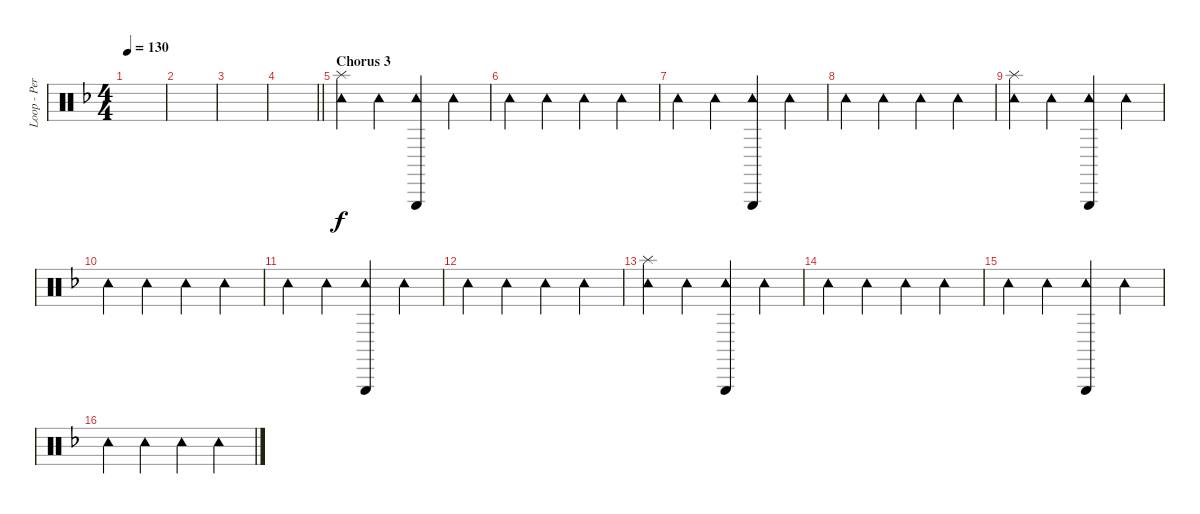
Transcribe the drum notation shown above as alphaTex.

\track ("Loop - Percussion FX" "Loop - Per") {instrument percussion}
\staff {score}
\articulation defaults
\ts (4 4)
\tempo 130
\clef neutral
\ks f
|
|
|
\barLineRight lightlight
|
\section ("" "Chorus 3")
("Tambourine (hit)" "Splash (hit)").4 "Tambourine (hit)".4 ("Tambourine (hit)" "Triangle (hit)").4 "Tambourine (hit)".4 |
"Tambourine (hit)".4 "Tambourine (hit)".4 "Tambourine (hit)".4 "Tambourine (hit)".4 |
"Tambourine (hit)".4 "Tambourine (hit)".4 ("Tambourine (hit)" "Triangle (hit)").4 "Tambourine (hit)".4 |
"Tambourine (hit)".4 "Tambourine (hit)".4 "Tambourine (hit)".4 "Tambourine (hit)".4 |
("Tambourine (hit)" "Splash (hit)").4 "Tambourine (hit)".4 ("Tambourine (hit)" "Triangle (hit)").4 "Tambourine (hit)".4 |
"Tambourine (hit)".4 "Tambourine (hit)".4 "Tambourine (hit)".4 "Tambourine (hit)".4 |
"Tambourine (hit)".4 "Tambourine (hit)".4 ("Tambourine (hit)" "Triangle (hit)").4 "Tambourine (hit)".4 |
"Tambourine (hit)".4 "Tambourine (hit)".4 "Tambourine (hit)".4 "Tambourine (hit)".4 |
("Tambourine (hit)" "Splash (hit)").4 "Tambourine (hit)".4 ("Tambourine (hit)" "Triangle (hit)").4 "Tambourine (hit)".4 |
"Tambourine (hit)".4 "Tambourine (hit)".4 "Tambourine (hit)".4 "Tambourine (hit)".4 |
"Tambourine (hit)".4 "Tambourine (hit)".4 ("Tambourine (hit)" "Triangle (hit)").4 "Tambourine (hit)".4 |
"Tambourine (hit)".4 "Tambourine (hit)".4 "Tambourine (hit)".4 "Tambourine (hit)".4
